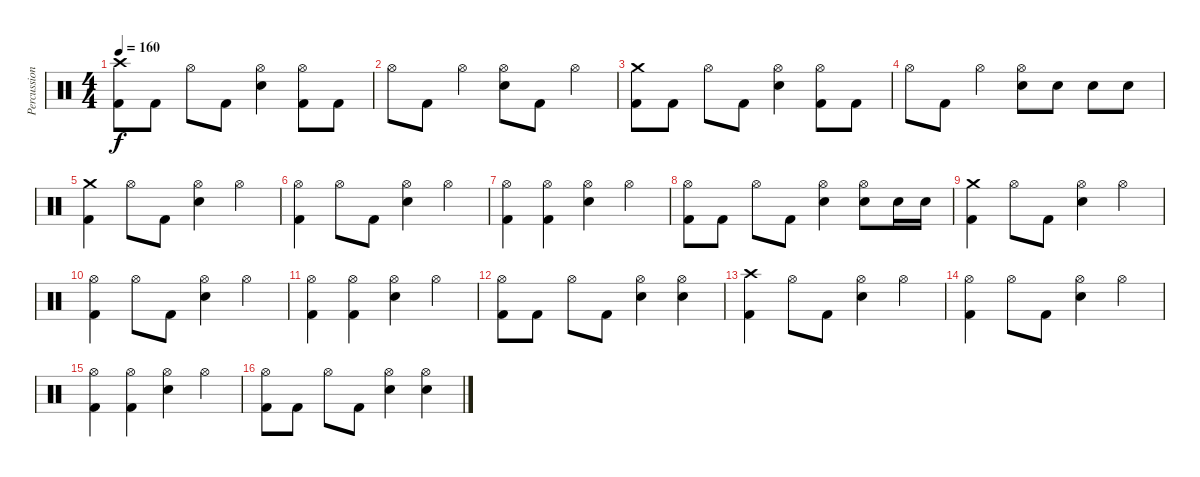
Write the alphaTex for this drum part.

\track ("Percussioni" "Percussion") {instrument percussion}
\staff {score}
\articulation defaults
\ts (4 4)
\tempo 160
\clef neutral
\ks c
("Crash high (hit)" "Kick (hit) 2").8{dy f} "Kick (hit) 2".8 "Hi-Hat (open)".8 "Kick (hit) 2".8 ("Hi-Hat (open)" "Electric Snare (hit)").4 ("Hi-Hat (open)" "Kick (hit) 2").8 "Kick (hit) 2".8 |
"Hi-Hat (open)".8 "Kick (hit) 2".8 "Hi-Hat (open)".4 ("Hi-Hat (open)" "Electric Snare (hit)").8 "Kick (hit) 2".8 "Hi-Hat (open)".4 |
("Crash medium (hit)" "Kick (hit) 2").8 "Kick (hit) 2".8 "Hi-Hat (open)".8 "Kick (hit) 2".8 ("Hi-Hat (open)" "Electric Snare (hit)").4 ("Hi-Hat (open)" "Kick (hit) 2").8 "Kick (hit) 2".8 |
"Hi-Hat (open)".8 "Kick (hit) 2".8 "Hi-Hat (open)".4 ("Hi-Hat (open)" "Electric Snare (hit)").8 "Electric Snare (hit)".8 "Electric Snare (hit)".8 "Electric Snare (hit)".8 |
("Crash medium (hit)" "Kick (hit) 2").4 "Hi-Hat (open)".8 "Kick (hit) 2".8 ("Hi-Hat (open)" "Electric Snare (hit)").4 "Hi-Hat (open)".4 |
("Hi-Hat (open)" "Kick (hit) 2").4 "Hi-Hat (open)".8 "Kick (hit) 2".8 ("Hi-Hat (open)" "Electric Snare (hit)").4 "Hi-Hat (open)".4 |
("Hi-Hat (open)" "Kick (hit) 2").4 ("Hi-Hat (open)" "Kick (hit) 2").4 ("Hi-Hat (open)" "Electric Snare (hit)").4 "Hi-Hat (open)".4 |
("Hi-Hat (open)" "Kick (hit) 2").8 "Kick (hit) 2".8 "Hi-Hat (open)".8 "Kick (hit) 2".8 ("Hi-Hat (open)" "Electric Snare (hit)").4 ("Hi-Hat (open)" "Electric Snare (hit)").8 "Electric Snare (hit)".16 "Electric Snare (hit)".16 |
("Crash medium (hit)" "Kick (hit) 2").4 "Hi-Hat (open)".8 "Kick (hit) 2".8 ("Hi-Hat (open)" "Electric Snare (hit)").4 "Hi-Hat (open)".4 |
("Hi-Hat (open)" "Kick (hit) 2").4 "Hi-Hat (open)".8 "Kick (hit) 2".8 ("Hi-Hat (open)" "Electric Snare (hit)").4 "Hi-Hat (open)".4 |
("Hi-Hat (open)" "Kick (hit) 2").4 ("Hi-Hat (open)" "Kick (hit) 2").4 ("Hi-Hat (open)" "Electric Snare (hit)").4 "Hi-Hat (open)".4 |
("Hi-Hat (open)" "Kick (hit) 2").8 "Kick (hit) 2".8 "Hi-Hat (open)".8 "Kick (hit) 2".8 ("Hi-Hat (open)" "Electric Snare (hit)").4 ("Hi-Hat (open)" "Electric Snare (hit)").4 |
("Crash high (hit)" "Kick (hit) 2").4 "Hi-Hat (open)".8 "Kick (hit) 2".8 ("Hi-Hat (open)" "Electric Snare (hit)").4 "Hi-Hat (open)".4 |
("Hi-Hat (open)" "Kick (hit) 2").4 "Hi-Hat (open)".8 "Kick (hit) 2".8 ("Hi-Hat (open)" "Electric Snare (hit)").4 "Hi-Hat (open)".4 |
("Hi-Hat (open)" "Kick (hit) 2").4 ("Hi-Hat (open)" "Kick (hit) 2").4 ("Hi-Hat (open)" "Electric Snare (hit)").4 "Hi-Hat (open)".4 |
("Hi-Hat (open)" "Kick (hit) 2").8 "Kick (hit) 2".8 "Hi-Hat (open)".8 "Kick (hit) 2".8 ("Hi-Hat (open)" "Electric Snare (hit)").4 ("Hi-Hat (open)" "Electric Snare (hit)").4
